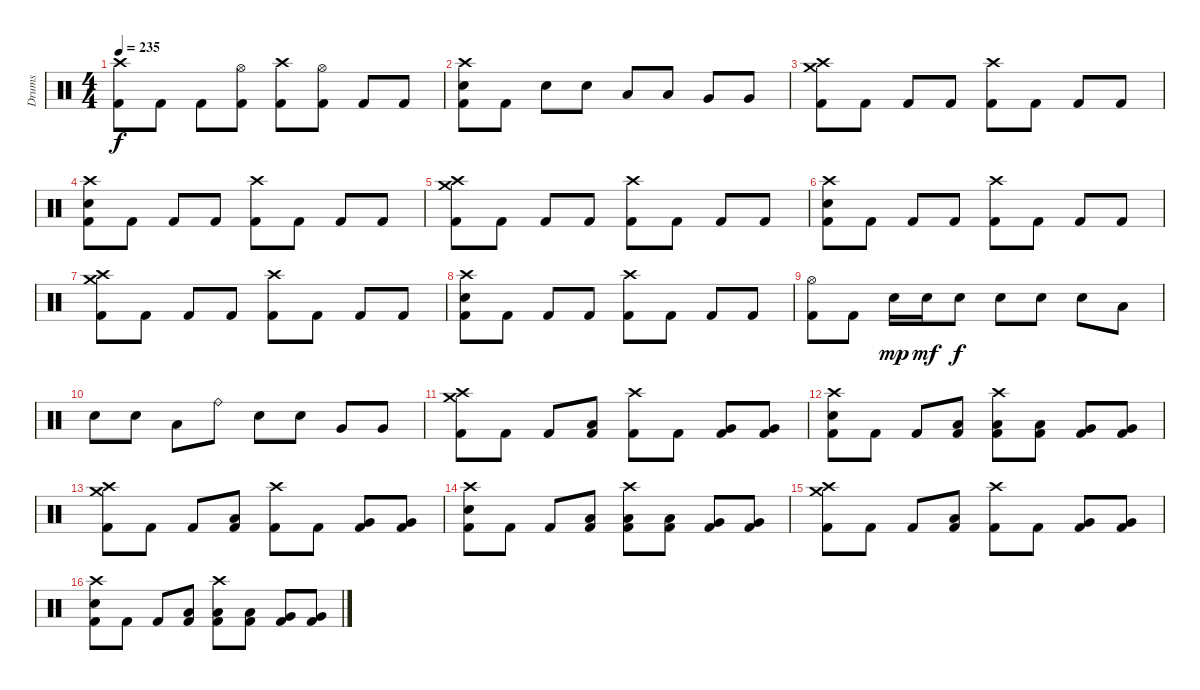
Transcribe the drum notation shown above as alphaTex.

\track ("Drums" "Drums") {instrument percussion}
\staff {score}
\articulation defaults
\ts (4 4)
\tempo 235
\clef neutral
\ks c
("Crash high (hit)" "Kick (hit) 2").8{dy f} "Kick (hit) 2".8 "Kick (hit) 2".8 ("Hi-Hat (open)" "Kick (hit) 2").8 ("Crash high (hit)" "Kick (hit) 2").8 ("Hi-Hat (open)" "Kick (hit) 2").8 "Kick (hit) 2".8 "Kick (hit) 2".8 |
("Crash high (hit)" "Electric Snare (hit)" "Kick (hit) 2").8 "Kick (hit) 2".8 "Electric Snare (hit)".8 "Electric Snare (hit)".8 "Low Tom (hit)".8 "Low Tom (hit)".8 "Very Low Tom (hit)".8 "Very Low Tom (hit)".8 |
("Crash high (hit)" "Crash medium (hit)" "Kick (hit) 2").8 "Kick (hit) 2".8 "Kick (hit) 2".8 "Kick (hit) 2".8 ("Crash high (hit)" "Kick (hit) 2").8 "Kick (hit) 2".8 "Kick (hit) 2".8 "Kick (hit) 2".8 |
("Crash high (hit)" "Electric Snare (hit)" "Kick (hit) 2").8 "Kick (hit) 2".8 "Kick (hit) 2".8 "Kick (hit) 2".8 ("Crash high (hit)" "Kick (hit) 2").8 "Kick (hit) 2".8 "Kick (hit) 2".8 "Kick (hit) 2".8 |
("Crash high (hit)" "Crash medium (hit)" "Kick (hit) 2").8 "Kick (hit) 2".8 "Kick (hit) 2".8 "Kick (hit) 2".8 ("Crash high (hit)" "Kick (hit) 2").8 "Kick (hit) 2".8 "Kick (hit) 2".8 "Kick (hit) 2".8 |
("Crash high (hit)" "Electric Snare (hit)" "Kick (hit) 2").8 "Kick (hit) 2".8 "Kick (hit) 2".8 "Kick (hit) 2".8 ("Crash high (hit)" "Kick (hit) 2").8 "Kick (hit) 2".8 "Kick (hit) 2".8 "Kick (hit) 2".8 |
("Crash high (hit)" "Crash medium (hit)" "Kick (hit) 2").8 "Kick (hit) 2".8 "Kick (hit) 2".8 "Kick (hit) 2".8 ("Crash high (hit)" "Kick (hit) 2").8 "Kick (hit) 2".8 "Kick (hit) 2".8 "Kick (hit) 2".8 |
("Crash high (hit)" "Electric Snare (hit)" "Kick (hit) 2").8 "Kick (hit) 2".8 "Kick (hit) 2".8 "Kick (hit) 2".8 ("Crash high (hit)" "Kick (hit) 2").8 "Kick (hit) 2".8 "Kick (hit) 2".8 "Kick (hit) 2".8 |
("Hi-Hat (open)" "Kick (hit) 2").8 "Kick (hit) 2".8 "Electric Snare (hit)".16{dy mp} "Electric Snare (hit)".16{dy mf} "Electric Snare (hit)".8{dy f} "Electric Snare (hit)".8 "Electric Snare (hit)".8 "Electric Snare (hit)".8 "Low Tom (hit)".8 |
"Electric Snare (hit)".8 "Electric Snare (hit)".8 "Low Tom (hit)".8 "Ride (bell)".8 "Electric Snare (hit)".8 "Electric Snare (hit)".8 "Very Low Tom (hit)".8 "Very Low Tom (hit)".8 |
("Crash high (hit)" "Crash medium (hit)" "Kick (hit) 2").8 "Kick (hit) 2".8 "Kick (hit) 2".8 ("Low Tom (hit)" "Kick (hit) 2").8 ("Crash high (hit)" "Kick (hit) 2").8 "Kick (hit) 2".8 ("Very Low Tom (hit)" "Kick (hit) 2").8 ("Very Low Tom (hit)" "Kick (hit) 2").8 |
("Crash high (hit)" "Electric Snare (hit)" "Kick (hit) 2").8 "Kick (hit) 2".8 "Kick (hit) 2".8 ("Low Tom (hit)" "Kick (hit) 2").8 ("Crash high (hit)" "Low Tom (hit)" "Kick (hit) 2").8 ("Low Tom (hit)" "Kick (hit) 2").8 ("Very Low Tom (hit)" "Kick (hit) 2").8 ("Very Low Tom (hit)" "Kick (hit) 2").8 |
("Crash high (hit)" "Crash medium (hit)" "Kick (hit) 2").8 "Kick (hit) 2".8 "Kick (hit) 2".8 ("Low Tom (hit)" "Kick (hit) 2").8 ("Crash high (hit)" "Kick (hit) 2").8 "Kick (hit) 2".8 ("Very Low Tom (hit)" "Kick (hit) 2").8 ("Very Low Tom (hit)" "Kick (hit) 2").8 |
("Crash high (hit)" "Electric Snare (hit)" "Kick (hit) 2").8 "Kick (hit) 2".8 "Kick (hit) 2".8 ("Low Tom (hit)" "Kick (hit) 2").8 ("Crash high (hit)" "Low Tom (hit)" "Kick (hit) 2").8 ("Low Tom (hit)" "Kick (hit) 2").8 ("Very Low Tom (hit)" "Kick (hit) 2").8 ("Very Low Tom (hit)" "Kick (hit) 2").8 |
("Crash high (hit)" "Crash medium (hit)" "Kick (hit) 2").8 "Kick (hit) 2".8 "Kick (hit) 2".8 ("Low Tom (hit)" "Kick (hit) 2").8 ("Crash high (hit)" "Kick (hit) 2").8 "Kick (hit) 2".8 ("Very Low Tom (hit)" "Kick (hit) 2").8 ("Very Low Tom (hit)" "Kick (hit) 2").8 |
("Crash high (hit)" "Electric Snare (hit)" "Kick (hit) 2").8 "Kick (hit) 2".8 "Kick (hit) 2".8 ("Low Tom (hit)" "Kick (hit) 2").8 ("Crash high (hit)" "Low Tom (hit)" "Kick (hit) 2").8 ("Low Tom (hit)" "Kick (hit) 2").8 ("Very Low Tom (hit)" "Kick (hit) 2").8 ("Very Low Tom (hit)" "Kick (hit) 2").8
